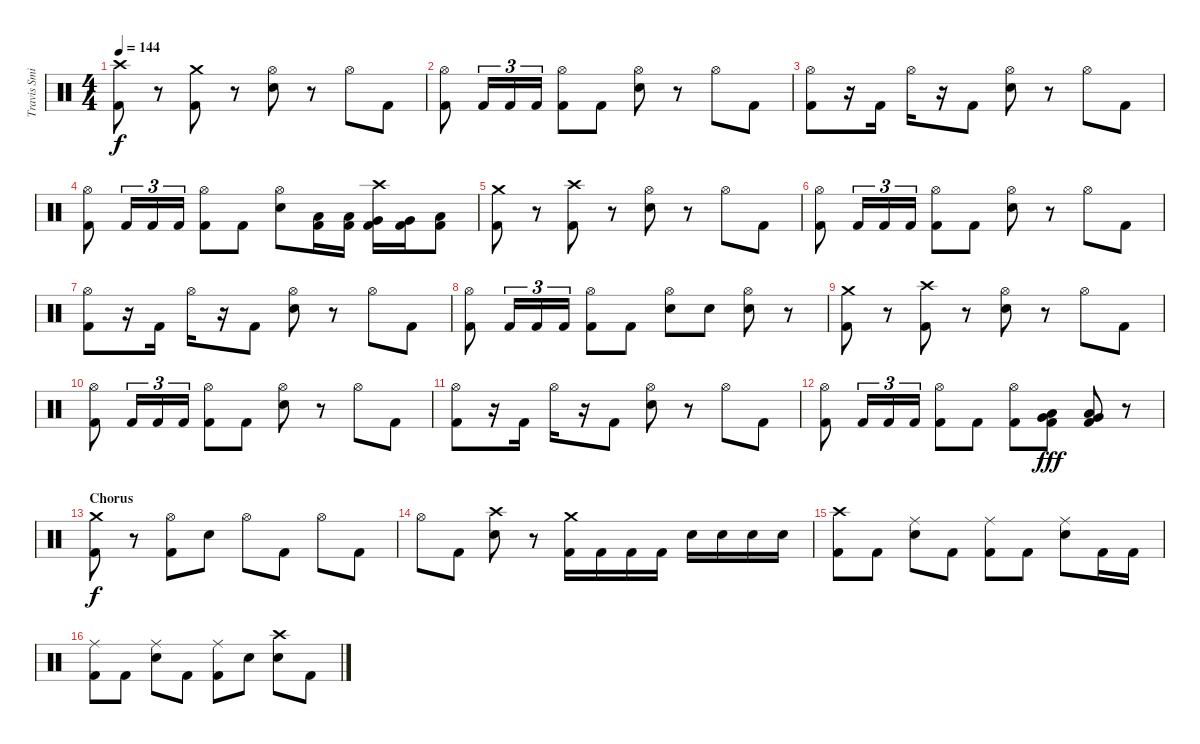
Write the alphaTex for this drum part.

\track ("Travis Smith" "Travis Smi") {instrument percussion}
\staff {score}
\articulation defaults
\ts (4 4)
\tempo 144
\clef neutral
\ks c
("Crash high (hit)" "Kick (hit) 2").8{dy f} r.8 ("Crash medium (hit)" "Kick (hit) 2").8 r.8 ("Hi-Hat (open)" "Electric Snare (hit)").8 r.8 "Hi-Hat (open)".8 "Kick (hit) 2".8 |
("Hi-Hat (open)" "Kick (hit) 2").8 "Kick (hit) 2".16{tu (3 2)} "Kick (hit) 2".16{tu (3 2)} "Kick (hit) 2".16{tu (3 2)} ("Hi-Hat (open)" "Kick (hit) 2").8 "Kick (hit) 2".8 ("Hi-Hat (open)" "Electric Snare (hit)").8 r.8 "Hi-Hat (open)".8 "Kick (hit) 2".8 |
("Hi-Hat (open)" "Kick (hit) 2").8 r.16 "Kick (hit) 2".16 "Hi-Hat (open)".16 r.16 "Kick (hit) 2".8 ("Hi-Hat (open)" "Electric Snare (hit)").8 r.8 "Hi-Hat (open)".8 "Kick (hit) 2".8 |
("Hi-Hat (open)" "Kick (hit) 2").8 "Kick (hit) 2".16{tu (3 2)} "Kick (hit) 2".16{tu (3 2)} "Kick (hit) 2".16{tu (3 2)} ("Hi-Hat (open)" "Kick (hit) 2").8 "Kick (hit) 2".8 ("Hi-Hat (open)" "Electric Snare (hit)").8 ("Low Tom (hit)" "Kick (hit) 2").16 ("Low Tom (hit)" "Kick (hit) 2").16 ("Crash high (hit)" "Very Low Tom (hit)" "Kick (hit) 2").16 ("Very Low Tom (hit)" "Kick (hit) 2").16 ("Low Floor Tom (hit)" "Kick (hit) 2").8 |
("Crash medium (hit)" "Kick (hit) 2").8 r.8 ("Crash high (hit)" "Kick (hit) 2").8 r.8 ("Hi-Hat (open)" "Electric Snare (hit)").8 r.8 "Hi-Hat (open)".8 "Kick (hit) 2".8 |
("Hi-Hat (open)" "Kick (hit) 2").8 "Kick (hit) 2".16{tu (3 2)} "Kick (hit) 2".16{tu (3 2)} "Kick (hit) 2".16{tu (3 2)} ("Hi-Hat (open)" "Kick (hit) 2").8 "Kick (hit) 2".8 ("Hi-Hat (open)" "Electric Snare (hit)").8 r.8 "Hi-Hat (open)".8 "Kick (hit) 2".8 |
("Hi-Hat (open)" "Kick (hit) 2").8 r.16 "Kick (hit) 2".16 "Hi-Hat (open)".16 r.16 "Kick (hit) 2".8 ("Hi-Hat (open)" "Electric Snare (hit)").8 r.8 "Hi-Hat (open)".8 "Kick (hit) 2".8 |
("Hi-Hat (open)" "Kick (hit) 2").8 "Kick (hit) 2".16{tu (3 2)} "Kick (hit) 2".16{tu (3 2)} "Kick (hit) 2".16{tu (3 2)} ("Hi-Hat (open)" "Kick (hit) 2").8 "Kick (hit) 2".8 ("Hi-Hat (open)" "Electric Snare (hit)").8 "Electric Snare (hit)".8 ("Hi-Hat (open)" "Electric Snare (hit)").8 r.8 |
("Crash medium (hit)" "Kick (hit) 2").8 r.8 ("Crash high (hit)" "Kick (hit) 2").8 r.8 ("Hi-Hat (open)" "Electric Snare (hit)").8 r.8 "Hi-Hat (open)".8 "Kick (hit) 2".8 |
("Hi-Hat (open)" "Kick (hit) 2").8 "Kick (hit) 2".16{tu (3 2)} "Kick (hit) 2".16{tu (3 2)} "Kick (hit) 2".16{tu (3 2)} ("Hi-Hat (open)" "Kick (hit) 2").8 "Kick (hit) 2".8 ("Hi-Hat (open)" "Electric Snare (hit)").8 r.8 "Hi-Hat (open)".8 "Kick (hit) 2".8 |
("Hi-Hat (open)" "Kick (hit) 2").8 r.16 "Kick (hit) 2".16 "Hi-Hat (open)".16 r.16 "Kick (hit) 2".8 ("Hi-Hat (open)" "Electric Snare (hit)").8 r.8 "Hi-Hat (open)".8 "Kick (hit) 2".8 |
("Hi-Hat (open)" "Kick (hit) 2").8 "Kick (hit) 2".16{tu (3 2)} "Kick (hit) 2".16{tu (3 2)} "Kick (hit) 2".16{tu (3 2)} ("Hi-Hat (open)" "Kick (hit) 2").8 "Kick (hit) 2".8 ("Hi-Hat (open)" "Kick (hit) 2").8 ("Very Low Tom (hit)" "Low Floor Tom (hit)" "Kick (hit) 2").8{dy fff} ("Very Low Tom (hit)" "Low Floor Tom (hit)" "Kick (hit) 2").8 r.8 |
\section ("" "Chorus")
("Crash medium (hit)" "Kick (hit) 2").8{dy f} r.8 ("Hi-Hat (open)" "Kick (hit) 2").8 "Electric Snare (hit)".8 "Hi-Hat (open)".8 "Kick (hit) 2".8 "Hi-Hat (open)".8 "Kick (hit) 2".8 |
"Hi-Hat (open)".8 "Kick (hit) 2".8 ("Crash high (hit)" "Electric Snare (hit)").8 r.8 ("Crash medium (hit)" "Kick (hit) 2").16 "Kick (hit) 2".16 "Kick (hit) 2".16 "Kick (hit) 2".16 "Electric Snare (hit)".16 "Electric Snare (hit)".16 "Electric Snare (hit)".16 "Electric Snare (hit)".16 |
("Crash high (hit)" "Kick (hit) 2").8 "Kick (hit) 2".8 ("Ride (middle)" "Electric Snare (hit)").8 "Kick (hit) 2".8 ("Ride (middle)" "Kick (hit) 2").8 "Kick (hit) 2".8 ("Ride (middle)" "Electric Snare (hit)").8 "Kick (hit) 2".16 "Kick (hit) 2".16 |
("Ride (middle)" "Kick (hit) 2").8 "Kick (hit) 2".8 ("Ride (middle)" "Electric Snare (hit)").8 "Kick (hit) 2".8 ("Ride (middle)" "Kick (hit) 2").8 "Electric Snare (hit)".8 ("Crash high (hit)" "Electric Snare (hit)").8 "Kick (hit) 2".8
